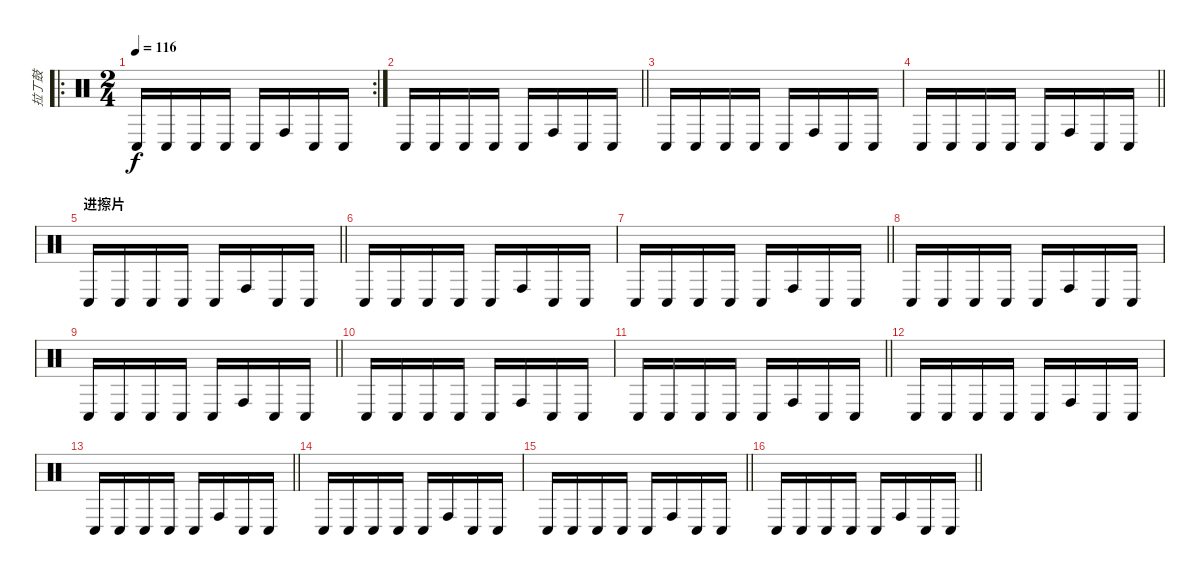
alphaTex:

\track ("拉丁鼓" "拉丁鼓") {instrument percussion}
\staff {score}
\articulation defaults
\ro
\rc 2
\ts (2 4)
\tempo 116
\clef neutral
\ks c "Conga low (hit)".16{dy f} "Conga low (hit)".16 "Conga low (hit)".16 "Conga low (hit)".16 "Conga low (hit)".16 "Conga high (hit)".16 "Conga low (hit)".16 "Conga low (hit)".16
|
\barLineRight lightlight "Conga low (hit)".16 "Conga low (hit)".16 "Conga low (hit)".16 "Conga low (hit)".16 "Conga low (hit)".16 "Conga high (hit)".16 "Conga low (hit)".16 "Conga low (hit)".16
|
"Conga low (hit)".16 "Conga low (hit)".16 "Conga low (hit)".16 "Conga low (hit)".16 "Conga low (hit)".16 "Conga high (hit)".16 "Conga low (hit)".16 "Conga low (hit)".16 |
\barLineRight lightlight "Conga low (hit)".16 "Conga low (hit)".16 "Conga low (hit)".16 "Conga low (hit)".16 "Conga low (hit)".16 "Conga high (hit)".16 "Conga low (hit)".16 "Conga low (hit)".16
|
\section ("" "进擦片")
\barLineRight lightlight "Conga low (hit)".16 "Conga low (hit)".16 "Conga low (hit)".16 "Conga low (hit)".16 "Conga low (hit)".16 "Conga high (hit)".16 "Conga low (hit)".16 "Conga low (hit)".16
|
\section ("" "")
"Conga low (hit)".16 "Conga low (hit)".16 "Conga low (hit)".16 "Conga low (hit)".16 "Conga low (hit)".16 "Conga high (hit)".16 "Conga low (hit)".16 "Conga low (hit)".16 |
\barLineRight lightlight "Conga low (hit)".16 "Conga low (hit)".16 "Conga low (hit)".16 "Conga low (hit)".16 "Conga low (hit)".16 "Conga high (hit)".16 "Conga low (hit)".16 "Conga low (hit)".16
|
"Conga low (hit)".16 "Conga low (hit)".16 "Conga low (hit)".16 "Conga low (hit)".16 "Conga low (hit)".16 "Conga high (hit)".16 "Conga low (hit)".16 "Conga low (hit)".16 |
\barLineRight lightlight "Conga low (hit)".16 "Conga low (hit)".16 "Conga low (hit)".16 "Conga low (hit)".16 "Conga low (hit)".16 "Conga high (hit)".16 "Conga low (hit)".16 "Conga low (hit)".16
|
"Conga low (hit)".16 "Conga low (hit)".16 "Conga low (hit)".16 "Conga low (hit)".16 "Conga low (hit)".16 "Conga high (hit)".16 "Conga low (hit)".16 "Conga low (hit)".16 |
\barLineRight lightlight "Conga low (hit)".16 "Conga low (hit)".16 "Conga low (hit)".16 "Conga low (hit)".16 "Conga low (hit)".16 "Conga high (hit)".16 "Conga low (hit)".16 "Conga low (hit)".16
|
"Conga low (hit)".16 "Conga low (hit)".16 "Conga low (hit)".16 "Conga low (hit)".16 "Conga low (hit)".16 "Conga high (hit)".16 "Conga low (hit)".16 "Conga low (hit)".16 |
\barLineRight lightlight "Conga low (hit)".16 "Conga low (hit)".16 "Conga low (hit)".16 "Conga low (hit)".16 "Conga low (hit)".16 "Conga high (hit)".16 "Conga low (hit)".16 "Conga low (hit)".16
|
"Conga low (hit)".16 "Conga low (hit)".16 "Conga low (hit)".16 "Conga low (hit)".16 "Conga low (hit)".16 "Conga high (hit)".16 "Conga low (hit)".16 "Conga low (hit)".16 |
\barLineRight lightlight "Conga low (hit)".16 "Conga low (hit)".16 "Conga low (hit)".16 "Conga low (hit)".16 "Conga low (hit)".16 "Conga high (hit)".16 "Conga low (hit)".16 "Conga low (hit)".16
|
\barLineRight lightlight "Conga low (hit)".16 "Conga low (hit)".16 "Conga low (hit)".16 "Conga low (hit)".16 "Conga low (hit)".16 "Conga high (hit)".16 "Conga low (hit)".16 "Conga low (hit)".16
